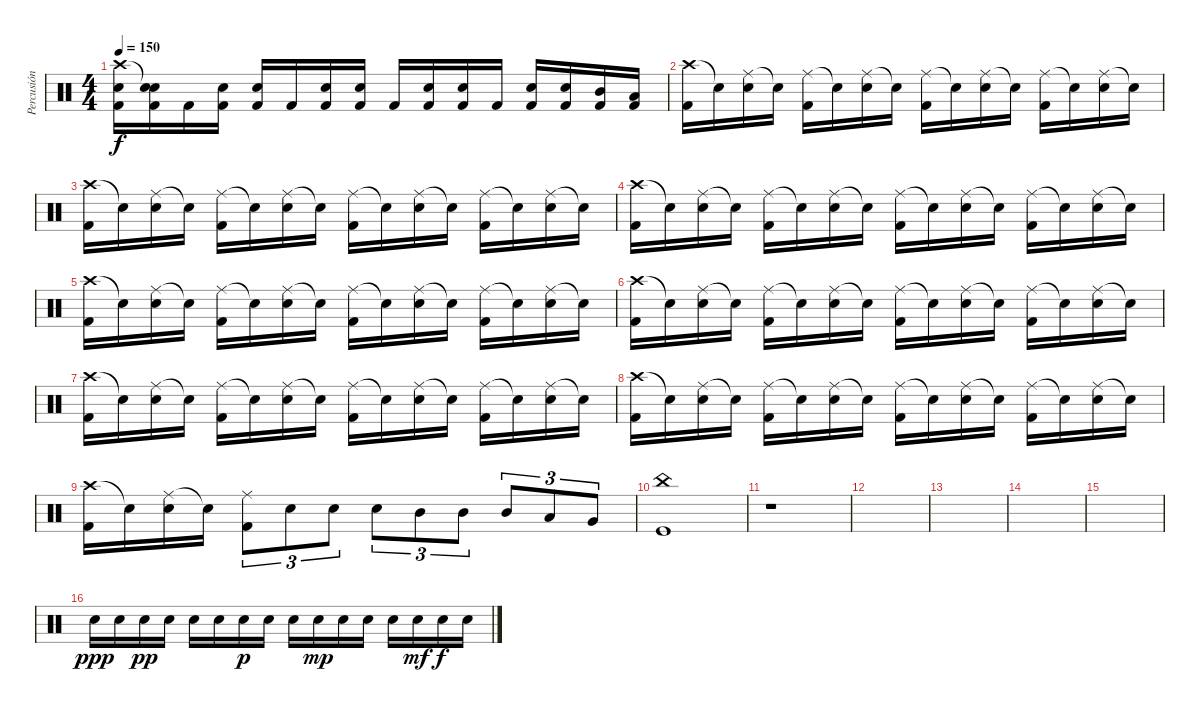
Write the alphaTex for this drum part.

\track ("Percusión" "Percusión") {instrument percussion}
\staff {score}
\articulation defaults
\ts (4 4)
\tempo 150
\clef neutral
\ks c
("Crash high (hit)" "Electric Snare (hit)" "Kick (hit) 2").16{dy f} ("Snare (hit)"{t} "Electric Snare (hit)" "Kick (hit) 2").16 "Kick (hit) 2".16 ("Electric Snare (hit)" "Kick (hit) 2").16 ("Electric Snare (hit)" "Kick (hit) 2").16 "Kick (hit) 2".16 ("Electric Snare (hit)" "Kick (hit) 2").16 ("Electric Snare (hit)" "Kick (hit) 2").16 "Kick (hit) 2".16 ("Electric Snare (hit)" "Kick (hit) 2").16 ("Electric Snare (hit)" "Kick (hit) 2").16 "Kick (hit) 2".16 ("Electric Snare (hit)" "Kick (hit) 2").16 ("Electric Snare (hit)" "Kick (hit) 2").16 ("Mid Tom (hit)" "Kick (hit) 2").16 ("Low Tom (hit)" "Kick (hit) 2").16 |
("Crash high (hit)" "Kick (hit) 2").16 "Snare (hit)"{t}.16 ("Ride (middle)" "Electric Snare (hit)").16 "Snare (hit)"{t}.16 ("Ride (middle)" "Kick (hit) 2").16 "Snare (hit)"{t}.16 ("Ride (middle)" "Electric Snare (hit)").16 "Snare (hit)"{t}.16 ("Ride (middle)" "Kick (hit) 2").16 "Snare (hit)"{t}.16 ("Ride (middle)" "Electric Snare (hit)").16 "Snare (hit)"{t}.16 ("Ride (middle)" "Kick (hit) 2").16 "Snare (hit)"{t}.16 ("Ride (middle)" "Electric Snare (hit)").16 "Snare (hit)"{t}.16 |
("Crash high (hit)" "Kick (hit) 2").16 "Snare (hit)"{t}.16 ("Ride (middle)" "Electric Snare (hit)").16 "Snare (hit)"{t}.16 ("Ride (middle)" "Kick (hit) 2").16 "Snare (hit)"{t}.16 ("Ride (middle)" "Electric Snare (hit)").16 "Snare (hit)"{t}.16 ("Ride (middle)" "Kick (hit) 2").16 "Snare (hit)"{t}.16 ("Ride (middle)" "Electric Snare (hit)").16 "Snare (hit)"{t}.16 ("Ride (middle)" "Kick (hit) 2").16 "Snare (hit)"{t}.16 ("Ride (middle)" "Electric Snare (hit)").16 "Snare (hit)"{t}.16 |
("Crash high (hit)" "Kick (hit) 2").16 "Snare (hit)"{t}.16 ("Ride (middle)" "Electric Snare (hit)").16 "Snare (hit)"{t}.16 ("Ride (middle)" "Kick (hit) 2").16 "Snare (hit)"{t}.16 ("Ride (middle)" "Electric Snare (hit)").16 "Snare (hit)"{t}.16 ("Ride (middle)" "Kick (hit) 2").16 "Snare (hit)"{t}.16 ("Ride (middle)" "Electric Snare (hit)").16 "Snare (hit)"{t}.16 ("Ride (middle)" "Kick (hit) 2").16 "Snare (hit)"{t}.16 ("Ride (middle)" "Electric Snare (hit)").16 "Snare (hit)"{t}.16 |
("Crash high (hit)" "Kick (hit) 2").16 "Snare (hit)"{t}.16 ("Ride (middle)" "Electric Snare (hit)").16 "Snare (hit)"{t}.16 ("Ride (middle)" "Kick (hit) 2").16 "Snare (hit)"{t}.16 ("Ride (middle)" "Electric Snare (hit)").16 "Snare (hit)"{t}.16 ("Ride (middle)" "Kick (hit) 2").16 "Snare (hit)"{t}.16 ("Ride (middle)" "Electric Snare (hit)").16 "Snare (hit)"{t}.16 ("Ride (middle)" "Kick (hit) 2").16 "Snare (hit)"{t}.16 ("Ride (middle)" "Electric Snare (hit)").16 "Snare (hit)"{t}.16 |
("Crash high (hit)" "Kick (hit) 2").16 "Snare (hit)"{t}.16 ("Ride (middle)" "Electric Snare (hit)").16 "Snare (hit)"{t}.16 ("Ride (middle)" "Kick (hit) 2").16 "Snare (hit)"{t}.16 ("Ride (middle)" "Electric Snare (hit)").16 "Snare (hit)"{t}.16 ("Ride (middle)" "Kick (hit) 2").16 "Snare (hit)"{t}.16 ("Ride (middle)" "Electric Snare (hit)").16 "Snare (hit)"{t}.16 ("Ride (middle)" "Kick (hit) 2").16 "Snare (hit)"{t}.16 ("Ride (middle)" "Electric Snare (hit)").16 "Snare (hit)"{t}.16 |
("Crash high (hit)" "Kick (hit) 2").16 "Snare (hit)"{t}.16 ("Ride (middle)" "Electric Snare (hit)").16 "Snare (hit)"{t}.16 ("Ride (middle)" "Kick (hit) 2").16 "Snare (hit)"{t}.16 ("Ride (middle)" "Electric Snare (hit)").16 "Snare (hit)"{t}.16 ("Ride (middle)" "Kick (hit) 2").16 "Snare (hit)"{t}.16 ("Ride (middle)" "Electric Snare (hit)").16 "Snare (hit)"{t}.16 ("Ride (middle)" "Kick (hit) 2").16 "Snare (hit)"{t}.16 ("Ride (middle)" "Electric Snare (hit)").16 "Snare (hit)"{t}.16 |
("Crash high (hit)" "Kick (hit) 2").16 "Snare (hit)"{t}.16 ("Ride (middle)" "Electric Snare (hit)").16 "Snare (hit)"{t}.16 ("Ride (middle)" "Kick (hit) 2").16 "Snare (hit)"{t}.16 ("Ride (middle)" "Electric Snare (hit)").16 "Snare (hit)"{t}.16 ("Ride (middle)" "Kick (hit) 2").16 "Snare (hit)"{t}.16 ("Ride (middle)" "Electric Snare (hit)").16 "Snare (hit)"{t}.16 ("Ride (middle)" "Kick (hit) 2").16 "Snare (hit)"{t}.16 ("Ride (middle)" "Electric Snare (hit)").16 "Snare (hit)"{t}.16 |
("Crash high (hit)" "Kick (hit) 2").16 "Snare (hit)"{t}.16 ("Ride (middle)" "Electric Snare (hit)").16 "Snare (hit)"{t}.16 ("Ride (middle)" "Kick (hit) 2").8{tu (3 2)} "Electric Snare (hit)".8{tu (3 2)} "Electric Snare (hit)".8{tu (3 2)} "Electric Snare (hit)".8{tu (3 2)} "Mid Tom (hit)".8{tu (3 2)} "Mid Tom (hit)".8{tu (3 2)} "Mid Tom (hit)".8{tu (3 2)} "Low Tom (hit)".8{tu (3 2)} "Very Low Tom (hit)".8{tu (3 2)} |
("China (hit)" "Kick (hit)").1 |
r.1 |
|
|
|
|
"Electric Snare (hit)".16{dy ppp} "Electric Snare (hit)".16 "Electric Snare (hit)".16{dy pp} "Electric Snare (hit)".16 "Electric Snare (hit)".16 "Electric Snare (hit)".16 "Electric Snare (hit)".16{dy p} "Electric Snare (hit)".16 "Electric Snare (hit)".16 "Electric Snare (hit)".16{dy mp} "Electric Snare (hit)".16 "Electric Snare (hit)".16 "Electric Snare (hit)".16 "Electric Snare (hit)".16{dy mf} "Electric Snare (hit)".16{dy f} "Electric Snare (hit)".16
